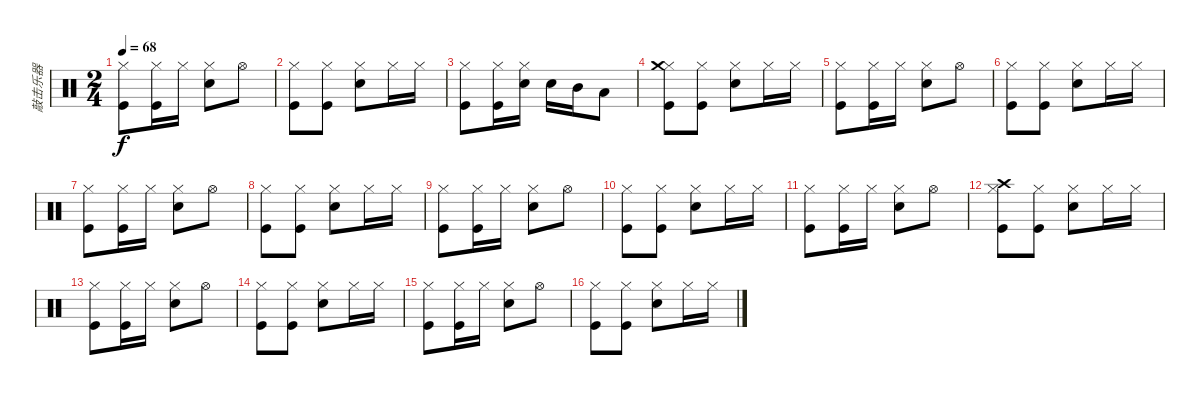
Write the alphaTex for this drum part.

\track ("敲击乐器" "敲击乐器") {instrument percussion}
\staff {score}
\articulation defaults
\ts (2 4)
\tempo 68
\clef neutral
\ks c
("Hi-Hat (closed)" "Kick (hit)").8{dy f} ("Hi-Hat (closed)" "Kick (hit)").16 "Hi-Hat (closed)".16 ("Hi-Hat (closed)" "Snare (hit) 2").8 "Hi-Hat (open)".8 |
("Hi-Hat (closed)" "Kick (hit)").8 ("Hi-Hat (closed)" "Kick (hit)").8 ("Hi-Hat (closed)" "Snare (hit) 2").8 "Hi-Hat (closed)".16 "Hi-Hat (closed)".16 |
("Hi-Hat (closed)" "Kick (hit)").8 ("Hi-Hat (closed)" "Kick (hit)").16 ("Hi-Hat (closed)" "Snare (hit) 2").16 "Snare (hit) 2".16 "Mid Tom (hit)".16 "Low Tom (hit)".8 |
("Hi-Hat (closed)" "Kick (hit)" "Crash medium (hit)").8 ("Hi-Hat (closed)" "Kick (hit)").8 ("Hi-Hat (closed)" "Snare (hit) 2").8 "Hi-Hat (closed)".16 "Hi-Hat (closed)".16 |
("Hi-Hat (closed)" "Kick (hit)").8 ("Hi-Hat (closed)" "Kick (hit)").16 "Hi-Hat (closed)".16 ("Hi-Hat (closed)" "Snare (hit) 2").8 "Hi-Hat (open)".8 |
("Hi-Hat (closed)" "Kick (hit)").8 ("Hi-Hat (closed)" "Kick (hit)").8 ("Hi-Hat (closed)" "Snare (hit) 2").8 "Hi-Hat (closed)".16 "Hi-Hat (closed)".16 |
("Hi-Hat (closed)" "Kick (hit)").8 ("Hi-Hat (closed)" "Kick (hit)").16 "Hi-Hat (closed)".16 ("Hi-Hat (closed)" "Snare (hit) 2").8 "Hi-Hat (open)".8 |
("Hi-Hat (closed)" "Kick (hit)").8 ("Hi-Hat (closed)" "Kick (hit)").8 ("Hi-Hat (closed)" "Snare (hit) 2").8 "Hi-Hat (closed)".16 "Hi-Hat (closed)".16 |
("Hi-Hat (closed)" "Kick (hit)").8 ("Hi-Hat (closed)" "Kick (hit)").16 "Hi-Hat (closed)".16 ("Hi-Hat (closed)" "Snare (hit) 2").8 "Hi-Hat (open)".8 |
("Hi-Hat (closed)" "Kick (hit)").8 ("Hi-Hat (closed)" "Kick (hit)").8 ("Hi-Hat (closed)" "Snare (hit) 2").8 "Hi-Hat (closed)".16 "Hi-Hat (closed)".16 |
("Hi-Hat (closed)" "Kick (hit)").8 ("Hi-Hat (closed)" "Kick (hit)").16 "Hi-Hat (closed)".16 ("Hi-Hat (closed)" "Snare (hit) 2").8 "Hi-Hat (open)".8 |
("Hi-Hat (closed)" "Kick (hit)" "Crash high (hit)").8 ("Hi-Hat (closed)" "Kick (hit)").8 ("Hi-Hat (closed)" "Snare (hit) 2").8 "Hi-Hat (closed)".16 "Hi-Hat (closed)".16 |
("Hi-Hat (closed)" "Kick (hit)").8 ("Hi-Hat (closed)" "Kick (hit)").16 "Hi-Hat (closed)".16 ("Hi-Hat (closed)" "Snare (hit) 2").8 "Hi-Hat (open)".8 |
("Hi-Hat (closed)" "Kick (hit)").8 ("Hi-Hat (closed)" "Kick (hit)").8 ("Hi-Hat (closed)" "Snare (hit) 2").8 "Hi-Hat (closed)".16 "Hi-Hat (closed)".16 |
("Hi-Hat (closed)" "Kick (hit)").8 ("Hi-Hat (closed)" "Kick (hit)").16 "Hi-Hat (closed)".16 ("Hi-Hat (closed)" "Snare (hit) 2").8 "Hi-Hat (open)".8 |
("Hi-Hat (closed)" "Kick (hit)").8 ("Hi-Hat (closed)" "Kick (hit)").8 ("Hi-Hat (closed)" "Snare (hit) 2").8 "Hi-Hat (closed)".16 "Hi-Hat (closed)".16
